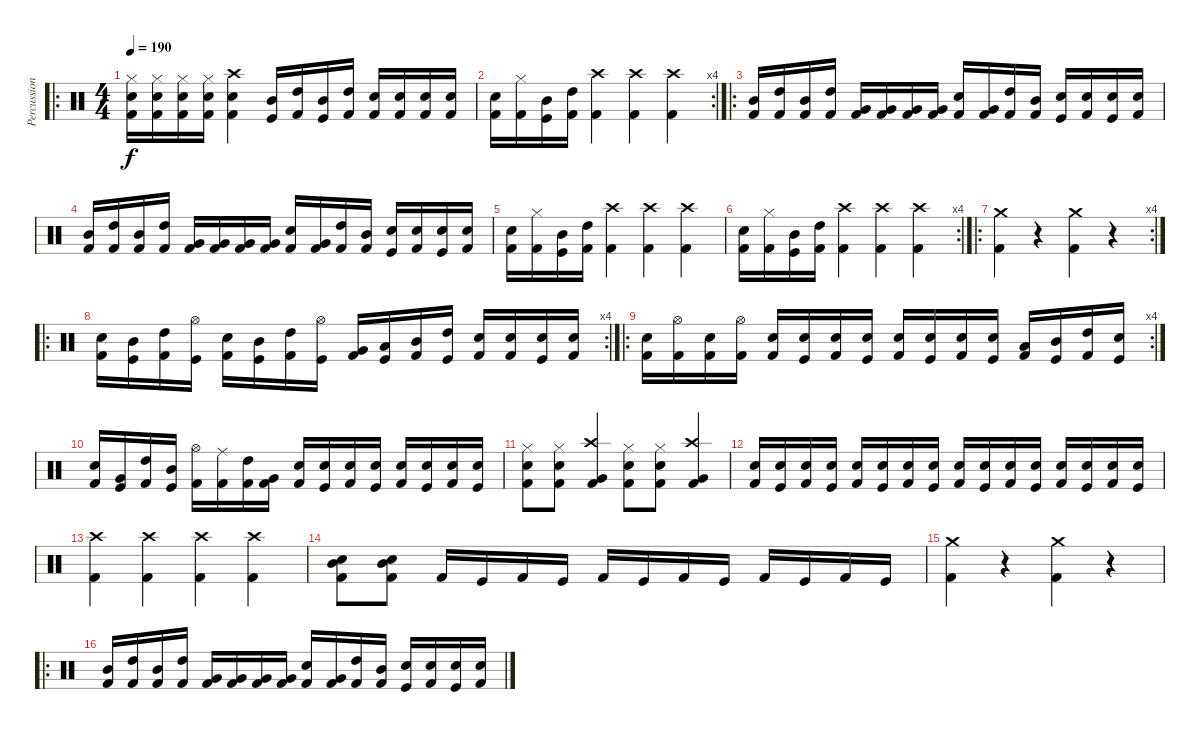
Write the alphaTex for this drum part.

\track ("Percussion" "Percussion") {instrument percussion}
\staff {score}
\articulation defaults
\ro
\ts (4 4)
\tempo 190
\clef neutral
\ks c
("Hi-Hat (closed)" "Electric Snare (hit)" "Kick (hit) 2").16{dy f} ("Hi-Hat (closed)" "Electric Snare (hit)" "Kick (hit) 2").16 ("Hi-Hat (closed)" "Electric Snare (hit)" "Kick (hit) 2").16 ("Hi-Hat (closed)" "Electric Snare (hit)" "Kick (hit) 2").16 ("Crash high (hit)" "Electric Snare (hit)" "Kick (hit) 2").4 ("Mid Tom (hit)" "Kick (hit)").16 ("High Tom (hit)" "Kick (hit) 2").16 ("Mid Tom (hit)" "Kick (hit)").16 ("High Tom (hit)" "Kick (hit) 2").16 ("Electric Snare (hit)" "Kick (hit) 2").16 ("Electric Snare (hit)" "Kick (hit) 2").16 ("Electric Snare (hit)" "Kick (hit) 2").16 ("Electric Snare (hit)" "Kick (hit) 2").16 |
\rc 4
("Electric Snare (hit)" "Kick (hit) 2").16 ("Hi-Hat (closed)" "Kick (hit) 2").16 ("Mid Tom (hit)" "Kick (hit)").16 ("High Tom (hit)" "Kick (hit) 2").16 ("Crash high (hit)" "Kick (hit) 2").4 ("Crash high (hit)" "Kick (hit) 2").4 ("Crash high (hit)" "Kick (hit) 2").4 |
\ro
("Mid Tom (hit)" "Kick (hit) 2").16 ("High Tom (hit)" "Kick (hit) 2").16 ("Mid Tom (hit)" "Kick (hit) 2").16 ("High Tom (hit)" "Kick (hit) 2").16 ("Very Low Tom (hit)" "Kick (hit) 2").16 ("Very Low Tom (hit)" "Kick (hit) 2").16 ("Very Low Tom (hit)" "Kick (hit) 2").16 ("Very Low Tom (hit)" "Kick (hit) 2").16 ("Electric Snare (hit)" "Kick (hit) 2").16 ("Very Low Tom (hit)" "Kick (hit) 2").16 ("High Tom (hit)" "Kick (hit) 2").16 ("Mid Tom (hit)" "Kick (hit) 2").16 ("Electric Snare (hit)" "Kick (hit)").16 ("Electric Snare (hit)" "Kick (hit) 2").16 ("Electric Snare (hit)" "Kick (hit)").16 ("Electric Snare (hit)" "Kick (hit) 2").16 |
("Mid Tom (hit)" "Kick (hit) 2").16 ("High Tom (hit)" "Kick (hit) 2").16 ("Mid Tom (hit)" "Kick (hit) 2").16 ("High Tom (hit)" "Kick (hit) 2").16 ("Very Low Tom (hit)" "Kick (hit) 2").16 ("Very Low Tom (hit)" "Kick (hit) 2").16 ("Very Low Tom (hit)" "Kick (hit) 2").16 ("Very Low Tom (hit)" "Kick (hit) 2").16 ("Electric Snare (hit)" "Kick (hit) 2").16 ("Very Low Tom (hit)" "Kick (hit) 2").16 ("High Tom (hit)" "Kick (hit) 2").16 ("Mid Tom (hit)" "Kick (hit) 2").16 ("Electric Snare (hit)" "Kick (hit)").16 ("Electric Snare (hit)" "Kick (hit) 2").16 ("Electric Snare (hit)" "Kick (hit)").16 ("Electric Snare (hit)" "Kick (hit) 2").16 |
("Electric Snare (hit)" "Kick (hit) 2").16 ("Hi-Hat (closed)" "Kick (hit) 2").16 ("Mid Tom (hit)" "Kick (hit)").16 ("High Tom (hit)" "Kick (hit) 2").16 ("Crash high (hit)" "Kick (hit) 2").4 ("Crash high (hit)" "Kick (hit) 2").4 ("Crash high (hit)" "Kick (hit) 2").4 |
\rc 4
("Electric Snare (hit)" "Kick (hit) 2").16 ("Hi-Hat (closed)" "Kick (hit) 2").16 ("Mid Tom (hit)" "Kick (hit)").16 ("High Tom (hit)" "Kick (hit) 2").16 ("Crash high (hit)" "Kick (hit) 2").4 ("Crash high (hit)" "Kick (hit) 2").4 ("Crash high (hit)" "Kick (hit) 2").4 |
\ro
\rc 4
("Crash medium (hit)" "Kick (hit) 2").4 r.4 ("Crash medium (hit)" "Kick (hit) 2").4 r.4 |
\ro
\rc 4
("Electric Snare (hit)" "Kick (hit) 2").16 ("Mid Tom (hit)" "Kick (hit)").16 ("High Tom (hit)" "Kick (hit) 2").16 ("Hi-Hat (open)" "Kick (hit)").16 ("Electric Snare (hit)" "Kick (hit) 2").16 ("Mid Tom (hit)" "Kick (hit)").16 ("High Tom (hit)" "Kick (hit) 2").16 ("Hi-Hat (open)" "Kick (hit)").16 ("Very Low Tom (hit)" "Kick (hit) 2").16 ("Low Floor Tom (hit)" "Kick (hit)").16 ("Mid Tom (hit)" "Kick (hit) 2").16 ("High Tom (hit)" "Kick (hit)").16 ("Snare (hit) 2" "Kick (hit) 2").16 ("Snare (hit) 2" "Kick (hit) 2").16 ("Snare (hit) 2" "Kick (hit)").16 ("Snare (hit) 2" "Kick (hit) 2").16 |
\ro
\rc 4
("Electric Snare (hit)" "Kick (hit) 2").16 ("Hi-Hat (open)" "Kick (hit) 2").16 ("Electric Snare (hit)" "Kick (hit) 2").16 ("Hi-Hat (open)" "Kick (hit) 2").16 ("Snare (hit) 2" "Kick (hit) 2").16 ("Snare (hit) 2" "Kick (hit)").16 ("Snare (hit) 2" "Kick (hit) 2").16 ("Snare (hit) 2" "Kick (hit)").16 ("Snare (hit) 2" "Kick (hit) 2").16 ("Snare (hit) 2" "Kick (hit)").16 ("Snare (hit) 2" "Kick (hit) 2").16 ("Snare (hit) 2" "Kick (hit)").16 ("Low Floor Tom (hit)" "Kick (hit) 2").16 ("Mid Tom (hit)" "Kick (hit)").16 ("High Tom (hit)" "Kick (hit) 2").16 ("Electric Snare (hit)" "Kick (hit)").16 |
("Electric Snare (hit)" "Kick (hit) 2").16 ("Very Low Tom (hit)" "Kick (hit)").16 ("High Tom (hit)" "Kick (hit) 2").16 ("Mid Tom (hit)" "Kick (hit)").16 ("Hi-Hat (open)" "Kick (hit) 2").16 ("Ride (middle)" "Kick (hit) 2").16 ("High Tom (hit)" "Kick (hit) 2").16 ("Very Low Tom (hit)" "Kick (hit) 2").16 ("Snare (hit) 2" "Kick (hit) 2").16 ("Snare (hit) 2" "Kick (hit)").16 ("Snare (hit) 2" "Kick (hit) 2").16 ("Snare (hit) 2" "Kick (hit)").16 ("Snare (hit) 2" "Kick (hit) 2").16 ("Snare (hit) 2" "Kick (hit)").16 ("Snare (hit) 2" "Kick (hit) 2").16 ("Snare (hit) 2" "Kick (hit)").16 |
("Hi-Hat (closed)" "Electric Snare (hit)" "Kick (hit) 2").8 ("Hi-Hat (closed)" "Electric Snare (hit)" "Kick (hit) 2").8 ("Crash high (hit)" "Very Low Tom (hit)" "Kick (hit) 2").4 ("Hi-Hat (closed)" "Electric Snare (hit)" "Kick (hit) 2").8 ("Hi-Hat (closed)" "Electric Snare (hit)" "Kick (hit) 2").8 ("Crash high (hit)" "Very Low Tom (hit)" "Kick (hit) 2").4 |
("Snare (hit) 2" "Kick (hit) 2").16 ("Electric Snare (hit)" "Kick (hit)").16 ("Snare (hit) 2" "Kick (hit) 2").16 ("Electric Snare (hit)" "Kick (hit)").16 ("Snare (hit) 2" "Kick (hit) 2").16 ("Electric Snare (hit)" "Kick (hit)").16 ("Snare (hit) 2" "Kick (hit) 2").16 ("Electric Snare (hit)" "Kick (hit)").16 ("Snare (hit) 2" "Kick (hit) 2").16 ("Electric Snare (hit)" "Kick (hit)").16 ("Snare (hit) 2" "Kick (hit) 2").16 ("Electric Snare (hit)" "Kick (hit)").16 ("Snare (hit) 2" "Kick (hit) 2").16 ("Electric Snare (hit)" "Kick (hit)").16 ("Snare (hit) 2" "Kick (hit) 2").16 ("Electric Snare (hit)" "Kick (hit)").16 |
("Crash high (hit)" "Kick (hit) 2").4 ("Crash high (hit)" "Kick (hit) 2").4 ("Crash high (hit)" "Kick (hit) 2").4 ("Crash high (hit)" "Kick (hit) 2").4 |
("Electric Snare (hit)" "Mid Tom (hit)" "Kick (hit) 2").8 ("Electric Snare (hit)" "Mid Tom (hit)" "Kick (hit) 2").8 "Kick (hit) 2".16 "Kick (hit)".16 "Kick (hit) 2".16 "Kick (hit)".16 "Kick (hit) 2".16 "Kick (hit)".16 "Kick (hit) 2".16 "Kick (hit)".16 "Kick (hit) 2".16 "Kick (hit)".16 "Kick (hit) 2".16 "Kick (hit)".16 |
("Crash medium (hit)" "Kick (hit) 2").4{volume 13} r.4 ("Crash medium (hit)" "Kick (hit) 2").4 r.4 |
\ro
("Mid Tom (hit)" "Kick (hit) 2").16 ("High Tom (hit)" "Kick (hit) 2").16 ("Mid Tom (hit)" "Kick (hit) 2").16 ("High Tom (hit)" "Kick (hit) 2").16 ("Very Low Tom (hit)" "Kick (hit) 2").16 ("Very Low Tom (hit)" "Kick (hit) 2").16 ("Very Low Tom (hit)" "Kick (hit) 2").16 ("Very Low Tom (hit)" "Kick (hit) 2").16 ("Electric Snare (hit)" "Kick (hit) 2").16 ("Very Low Tom (hit)" "Kick (hit) 2").16 ("High Tom (hit)" "Kick (hit) 2").16 ("Mid Tom (hit)" "Kick (hit) 2").16 ("Electric Snare (hit)" "Kick (hit)").16 ("Electric Snare (hit)" "Kick (hit) 2").16 ("Electric Snare (hit)" "Kick (hit)").16 ("Electric Snare (hit)" "Kick (hit) 2").16
